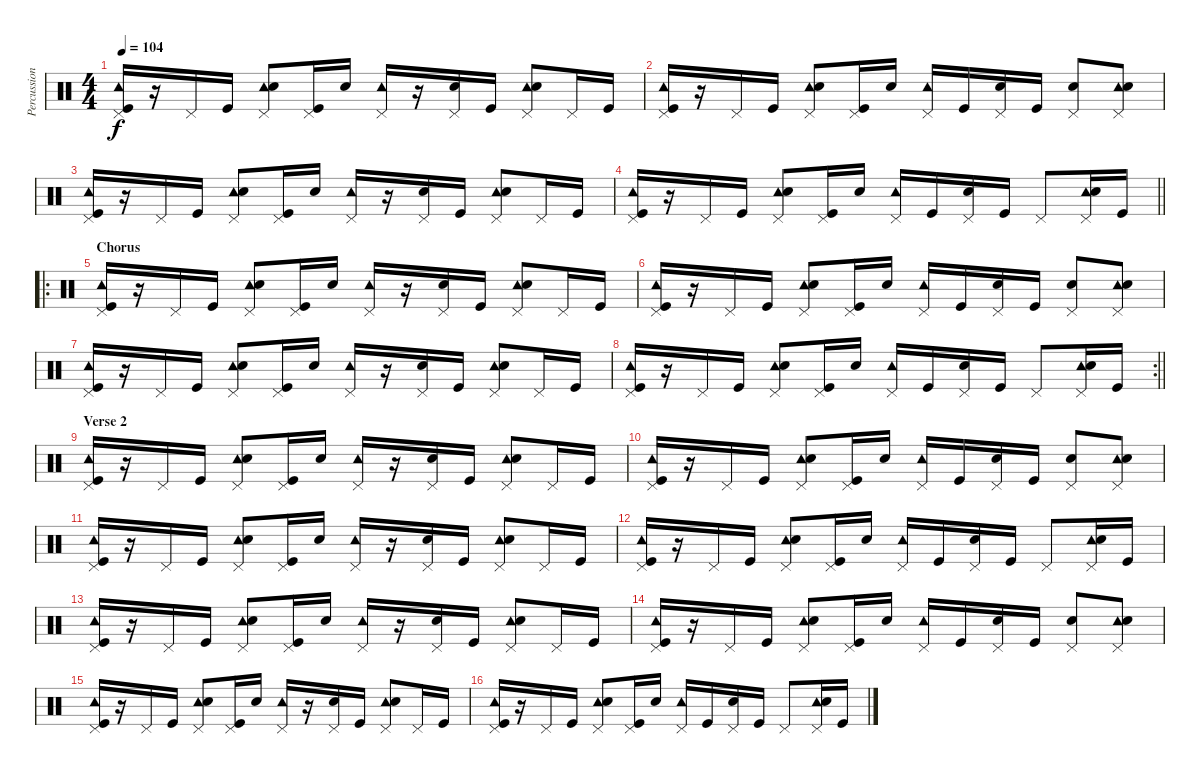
\track ("Percussion" "Percussion") {instrument percussion}
\staff {score}
\articulation defaults
\ts (4 4)
\tempo 104
\clef neutral
\ks c
("Tambourine (hit)" "Pedal Hi-Hat (hit)" "Kick (hit)").16{dy f} r.16 "Pedal Hi-Hat (hit)".16 "Kick (hit)".16 ("Tambourine (hit)" "Pedal Hi-Hat (hit)" "Snare (hit) 2").8 ("Pedal Hi-Hat (hit)" "Kick (hit)").16 "Snare (hit) 2".16 ("Tambourine (hit)" "Pedal Hi-Hat (hit)").16 r.16 ("Pedal Hi-Hat (hit)" "Snare (hit) 2").16 "Kick (hit)".16 ("Tambourine (hit)" "Pedal Hi-Hat (hit)" "Snare (hit) 2").8 "Pedal Hi-Hat (hit)".16 "Kick (hit)".16 |
("Tambourine (hit)" "Pedal Hi-Hat (hit)" "Kick (hit)").16 r.16 "Pedal Hi-Hat (hit)".16 "Kick (hit)".16 ("Tambourine (hit)" "Pedal Hi-Hat (hit)" "Snare (hit) 2").8 ("Pedal Hi-Hat (hit)" "Kick (hit)").16 "Snare (hit) 2".16 ("Tambourine (hit)" "Pedal Hi-Hat (hit)").16 "Kick (hit)".16 ("Pedal Hi-Hat (hit)" "Snare (hit) 2").16 "Kick (hit)".16 ("Pedal Hi-Hat (hit)" "Snare (hit) 2").8 ("Tambourine (hit)" "Pedal Hi-Hat (hit)" "Snare (hit) 2").8 |
("Tambourine (hit)" "Pedal Hi-Hat (hit)" "Kick (hit)").16 r.16 "Pedal Hi-Hat (hit)".16 "Kick (hit)".16 ("Tambourine (hit)" "Pedal Hi-Hat (hit)" "Snare (hit) 2").8 ("Pedal Hi-Hat (hit)" "Kick (hit)").16 "Snare (hit) 2".16 ("Tambourine (hit)" "Pedal Hi-Hat (hit)").16 r.16 ("Pedal Hi-Hat (hit)" "Snare (hit) 2").16 "Kick (hit)".16 ("Tambourine (hit)" "Pedal Hi-Hat (hit)" "Snare (hit) 2").8 "Pedal Hi-Hat (hit)".16 "Kick (hit)".16 |
\barLineRight lightlight
("Tambourine (hit)" "Pedal Hi-Hat (hit)" "Kick (hit)").16 r.16 "Pedal Hi-Hat (hit)".16 "Kick (hit)".16 ("Tambourine (hit)" "Pedal Hi-Hat (hit)" "Snare (hit) 2").8 ("Pedal Hi-Hat (hit)" "Kick (hit)").16 "Snare (hit) 2".16 ("Tambourine (hit)" "Pedal Hi-Hat (hit)").16 "Kick (hit)".16 ("Pedal Hi-Hat (hit)" "Snare (hit) 2").16 "Kick (hit)".16 "Pedal Hi-Hat (hit)".8 ("Tambourine (hit)" "Pedal Hi-Hat (hit)" "Snare (hit) 2").16 "Kick (hit)".16 |
\ro
\section ("" "Chorus")
("Tambourine (hit)" "Pedal Hi-Hat (hit)" "Kick (hit)").16 r.16 "Pedal Hi-Hat (hit)".16 "Kick (hit)".16 ("Tambourine (hit)" "Pedal Hi-Hat (hit)" "Snare (hit) 2").8 ("Pedal Hi-Hat (hit)" "Kick (hit)").16 "Snare (hit) 2".16 ("Tambourine (hit)" "Pedal Hi-Hat (hit)").16 r.16 ("Pedal Hi-Hat (hit)" "Snare (hit) 2").16 "Kick (hit)".16 ("Tambourine (hit)" "Pedal Hi-Hat (hit)" "Snare (hit) 2").8 "Pedal Hi-Hat (hit)".16 "Kick (hit)".16 |
("Tambourine (hit)" "Pedal Hi-Hat (hit)" "Kick (hit)").16 r.16 "Pedal Hi-Hat (hit)".16 "Kick (hit)".16 ("Tambourine (hit)" "Pedal Hi-Hat (hit)" "Snare (hit) 2").8 ("Pedal Hi-Hat (hit)" "Kick (hit)").16 "Snare (hit) 2".16 ("Tambourine (hit)" "Pedal Hi-Hat (hit)").16 "Kick (hit)".16 ("Pedal Hi-Hat (hit)" "Snare (hit) 2").16 "Kick (hit)".16 ("Pedal Hi-Hat (hit)" "Snare (hit) 2").8 ("Tambourine (hit)" "Pedal Hi-Hat (hit)" "Snare (hit) 2").8 |
("Tambourine (hit)" "Pedal Hi-Hat (hit)" "Kick (hit)").16 r.16 "Pedal Hi-Hat (hit)".16 "Kick (hit)".16 ("Tambourine (hit)" "Pedal Hi-Hat (hit)" "Snare (hit) 2").8 ("Pedal Hi-Hat (hit)" "Kick (hit)").16 "Snare (hit) 2".16 ("Tambourine (hit)" "Pedal Hi-Hat (hit)").16 r.16 ("Pedal Hi-Hat (hit)" "Snare (hit) 2").16 "Kick (hit)".16 ("Tambourine (hit)" "Pedal Hi-Hat (hit)" "Snare (hit) 2").8 "Pedal Hi-Hat (hit)".16 "Kick (hit)".16 |
\rc 2
\barLineRight lightlight
("Tambourine (hit)" "Pedal Hi-Hat (hit)" "Kick (hit)").16 r.16 "Pedal Hi-Hat (hit)".16 "Kick (hit)".16 ("Tambourine (hit)" "Pedal Hi-Hat (hit)" "Snare (hit) 2").8 ("Pedal Hi-Hat (hit)" "Kick (hit)").16 "Snare (hit) 2".16 ("Tambourine (hit)" "Pedal Hi-Hat (hit)").16 "Kick (hit)".16 ("Pedal Hi-Hat (hit)" "Snare (hit) 2").16 "Kick (hit)".16 "Pedal Hi-Hat (hit)".8 ("Tambourine (hit)" "Pedal Hi-Hat (hit)" "Snare (hit) 2").16 "Kick (hit)".16 |
\section ("" "Verse 2")
("Tambourine (hit)" "Pedal Hi-Hat (hit)" "Kick (hit)").16 r.16 "Pedal Hi-Hat (hit)".16 "Kick (hit)".16 ("Tambourine (hit)" "Pedal Hi-Hat (hit)" "Snare (hit) 2").8 ("Pedal Hi-Hat (hit)" "Kick (hit)").16 "Snare (hit) 2".16 ("Tambourine (hit)" "Pedal Hi-Hat (hit)").16 r.16 ("Pedal Hi-Hat (hit)" "Snare (hit) 2").16 "Kick (hit)".16 ("Tambourine (hit)" "Pedal Hi-Hat (hit)" "Snare (hit) 2").8 "Pedal Hi-Hat (hit)".16 "Kick (hit)".16 |
("Tambourine (hit)" "Pedal Hi-Hat (hit)" "Kick (hit)").16 r.16 "Pedal Hi-Hat (hit)".16 "Kick (hit)".16 ("Tambourine (hit)" "Pedal Hi-Hat (hit)" "Snare (hit) 2").8 ("Pedal Hi-Hat (hit)" "Kick (hit)").16 "Snare (hit) 2".16 ("Tambourine (hit)" "Pedal Hi-Hat (hit)").16 "Kick (hit)".16 ("Pedal Hi-Hat (hit)" "Snare (hit) 2").16 "Kick (hit)".16 ("Pedal Hi-Hat (hit)" "Snare (hit) 2").8 ("Tambourine (hit)" "Pedal Hi-Hat (hit)" "Snare (hit) 2").8 |
("Tambourine (hit)" "Pedal Hi-Hat (hit)" "Kick (hit)").16 r.16 "Pedal Hi-Hat (hit)".16 "Kick (hit)".16 ("Tambourine (hit)" "Pedal Hi-Hat (hit)" "Snare (hit) 2").8 ("Pedal Hi-Hat (hit)" "Kick (hit)").16 "Snare (hit) 2".16 ("Tambourine (hit)" "Pedal Hi-Hat (hit)").16 r.16 ("Pedal Hi-Hat (hit)" "Snare (hit) 2").16 "Kick (hit)".16 ("Tambourine (hit)" "Pedal Hi-Hat (hit)" "Snare (hit) 2").8 "Pedal Hi-Hat (hit)".16 "Kick (hit)".16 |
("Tambourine (hit)" "Pedal Hi-Hat (hit)" "Kick (hit)").16 r.16 "Pedal Hi-Hat (hit)".16 "Kick (hit)".16 ("Tambourine (hit)" "Pedal Hi-Hat (hit)" "Snare (hit) 2").8 ("Pedal Hi-Hat (hit)" "Kick (hit)").16 "Snare (hit) 2".16 ("Tambourine (hit)" "Pedal Hi-Hat (hit)").16 "Kick (hit)".16 ("Pedal Hi-Hat (hit)" "Snare (hit) 2").16 "Kick (hit)".16 "Pedal Hi-Hat (hit)".8 ("Tambourine (hit)" "Pedal Hi-Hat (hit)" "Snare (hit) 2").16 "Kick (hit)".16 |
("Tambourine (hit)" "Pedal Hi-Hat (hit)" "Kick (hit)").16 r.16 "Pedal Hi-Hat (hit)".16 "Kick (hit)".16 ("Tambourine (hit)" "Pedal Hi-Hat (hit)" "Snare (hit) 2").8 ("Pedal Hi-Hat (hit)" "Kick (hit)").16 "Snare (hit) 2".16 ("Tambourine (hit)" "Pedal Hi-Hat (hit)").16 r.16 ("Pedal Hi-Hat (hit)" "Snare (hit) 2").16 "Kick (hit)".16 ("Tambourine (hit)" "Pedal Hi-Hat (hit)" "Snare (hit) 2").8 "Pedal Hi-Hat (hit)".16 "Kick (hit)".16 |
("Tambourine (hit)" "Pedal Hi-Hat (hit)" "Kick (hit)").16 r.16 "Pedal Hi-Hat (hit)".16 "Kick (hit)".16 ("Tambourine (hit)" "Pedal Hi-Hat (hit)" "Snare (hit) 2").8 ("Pedal Hi-Hat (hit)" "Kick (hit)").16 "Snare (hit) 2".16 ("Tambourine (hit)" "Pedal Hi-Hat (hit)").16 "Kick (hit)".16 ("Pedal Hi-Hat (hit)" "Snare (hit) 2").16 "Kick (hit)".16 ("Pedal Hi-Hat (hit)" "Snare (hit) 2").8 ("Tambourine (hit)" "Pedal Hi-Hat (hit)" "Snare (hit) 2").8 |
("Tambourine (hit)" "Pedal Hi-Hat (hit)" "Kick (hit)").16 r.16 "Pedal Hi-Hat (hit)".16 "Kick (hit)".16 ("Tambourine (hit)" "Pedal Hi-Hat (hit)" "Snare (hit) 2").8 ("Pedal Hi-Hat (hit)" "Kick (hit)").16 "Snare (hit) 2".16 ("Tambourine (hit)" "Pedal Hi-Hat (hit)").16 r.16 ("Pedal Hi-Hat (hit)" "Snare (hit) 2").16 "Kick (hit)".16 ("Tambourine (hit)" "Pedal Hi-Hat (hit)" "Snare (hit) 2").8 "Pedal Hi-Hat (hit)".16 "Kick (hit)".16 |
("Tambourine (hit)" "Pedal Hi-Hat (hit)" "Kick (hit)").16 r.16 "Pedal Hi-Hat (hit)".16 "Kick (hit)".16 ("Tambourine (hit)" "Pedal Hi-Hat (hit)" "Snare (hit) 2").8 ("Pedal Hi-Hat (hit)" "Kick (hit)").16 "Snare (hit) 2".16 ("Tambourine (hit)" "Pedal Hi-Hat (hit)").16 "Kick (hit)".16 ("Pedal Hi-Hat (hit)" "Snare (hit) 2").16 "Kick (hit)".16 "Pedal Hi-Hat (hit)".8 ("Tambourine (hit)" "Pedal Hi-Hat (hit)" "Snare (hit) 2").16 "Kick (hit)".16
